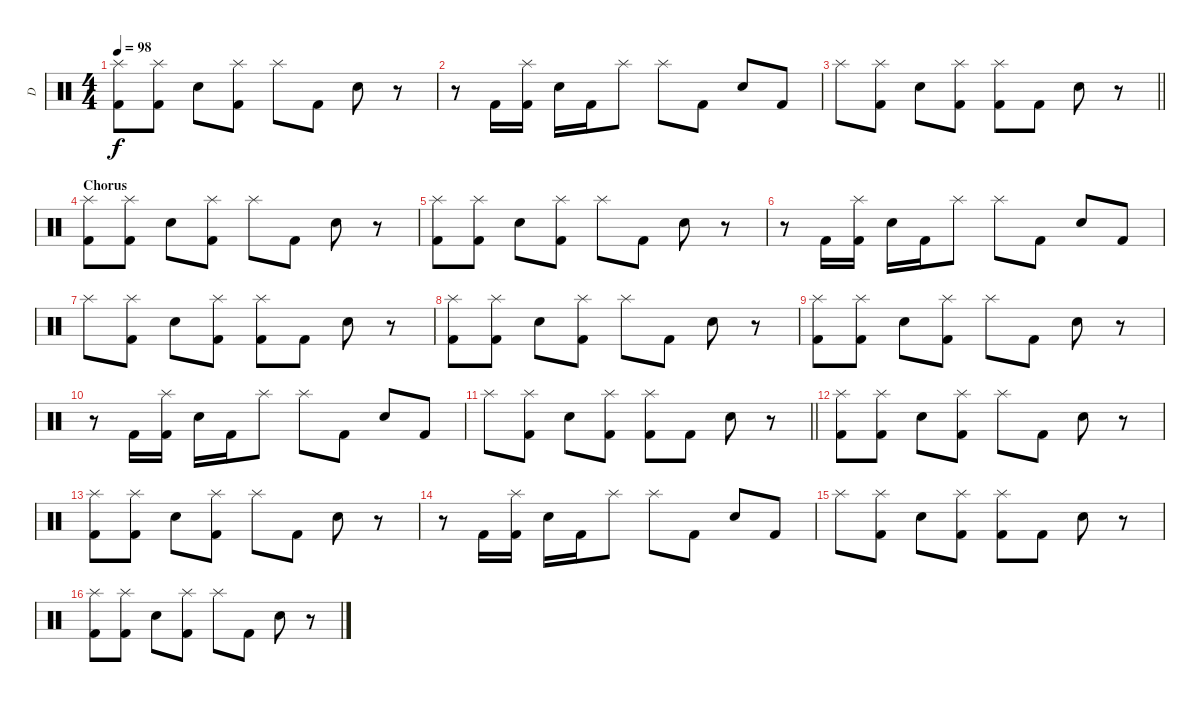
\track ("D" "D") {instrument percussion}
\staff {score}
\articulation defaults
\ts (4 4)
\tempo 98
\clef neutral
\ks c
("Kick (hit) 2" "Splash (hit)").8{dy f} ("Kick (hit) 2" "Splash (hit)").8 "Electric Snare (hit)".8 ("Kick (hit) 2" "Splash (hit)").8 "Splash (hit)".8 "Kick (hit) 2".8 "Electric Snare (hit)".8 r.8 |
r.8 "Kick (hit) 2".16 ("Kick (hit) 2" "Splash (hit)").16 "Electric Snare (hit)".16 "Kick (hit) 2".16 "Splash (hit)".8 "Splash (hit)".8 "Kick (hit) 2".8 "Electric Snare (hit)".8 "Kick (hit) 2".8 |
\barLineRight lightlight "Splash (hit)".8
("Kick (hit) 2" "Splash (hit)").8 "Electric Snare (hit)".8 ("Kick (hit) 2" "Splash (hit)").8 ("Kick (hit) 2" "Splash (hit)").8 "Kick (hit) 2".8 "Electric Snare (hit)".8 r.8 |
\section ("" "Chorus")
("Kick (hit) 2" "Splash (hit)").8 ("Kick (hit) 2" "Splash (hit)").8 "Electric Snare (hit)".8 ("Kick (hit) 2" "Splash (hit)").8 "Splash (hit)".8 "Kick (hit) 2".8 "Electric Snare (hit)".8 r.8 |
("Kick (hit) 2" "Splash (hit)").8 ("Kick (hit) 2" "Splash (hit)").8 "Electric Snare (hit)".8 ("Kick (hit) 2" "Splash (hit)").8 "Splash (hit)".8 "Kick (hit) 2".8 "Electric Snare (hit)".8 r.8 |
r.8 "Kick (hit) 2".16 ("Kick (hit) 2" "Splash (hit)").16 "Electric Snare (hit)".16 "Kick (hit) 2".16 "Splash (hit)".8 "Splash (hit)".8 "Kick (hit) 2".8 "Electric Snare (hit)".8 "Kick (hit) 2".8 |
"Splash (hit)".8 ("Kick (hit) 2" "Splash (hit)").8 "Electric Snare (hit)".8 ("Kick (hit) 2" "Splash (hit)").8 ("Kick (hit) 2" "Splash (hit)").8 "Kick (hit) 2".8 "Electric Snare (hit)".8 r.8 |
("Kick (hit) 2" "Splash (hit)").8 ("Kick (hit) 2" "Splash (hit)").8 "Electric Snare (hit)".8 ("Kick (hit) 2" "Splash (hit)").8 "Splash (hit)".8 "Kick (hit) 2".8 "Electric Snare (hit)".8 r.8 |
("Kick (hit) 2" "Splash (hit)").8 ("Kick (hit) 2" "Splash (hit)").8 "Electric Snare (hit)".8 ("Kick (hit) 2" "Splash (hit)").8 "Splash (hit)".8 "Kick (hit) 2".8 "Electric Snare (hit)".8 r.8 |
r.8 "Kick (hit) 2".16 ("Kick (hit) 2" "Splash (hit)").16 "Electric Snare (hit)".16 "Kick (hit) 2".16 "Splash (hit)".8 "Splash (hit)".8 "Kick (hit) 2".8 "Electric Snare (hit)".8 "Kick (hit) 2".8 |
\barLineRight lightlight "Splash (hit)".8
("Kick (hit) 2" "Splash (hit)").8 "Electric Snare (hit)".8 ("Kick (hit) 2" "Splash (hit)").8 ("Kick (hit) 2" "Splash (hit)").8 "Kick (hit) 2".8 "Electric Snare (hit)".8 r.8 |
("Kick (hit) 2" "Splash (hit)").8 ("Kick (hit) 2" "Splash (hit)").8 "Electric Snare (hit)".8 ("Kick (hit) 2" "Splash (hit)").8 "Splash (hit)".8 "Kick (hit) 2".8 "Electric Snare (hit)".8 r.8 |
("Kick (hit) 2" "Splash (hit)").8 ("Kick (hit) 2" "Splash (hit)").8 "Electric Snare (hit)".8 ("Kick (hit) 2" "Splash (hit)").8 "Splash (hit)".8 "Kick (hit) 2".8 "Electric Snare (hit)".8 r.8 |
r.8 "Kick (hit) 2".16 ("Kick (hit) 2" "Splash (hit)").16 "Electric Snare (hit)".16 "Kick (hit) 2".16 "Splash (hit)".8 "Splash (hit)".8 "Kick (hit) 2".8 "Electric Snare (hit)".8 "Kick (hit) 2".8 |
"Splash (hit)".8 ("Kick (hit) 2" "Splash (hit)").8 "Electric Snare (hit)".8 ("Kick (hit) 2" "Splash (hit)").8 ("Kick (hit) 2" "Splash (hit)").8 "Kick (hit) 2".8 "Electric Snare (hit)".8 r.8 |
("Kick (hit) 2" "Splash (hit)").8 ("Kick (hit) 2" "Splash (hit)").8 "Electric Snare (hit)".8 ("Kick (hit) 2" "Splash (hit)").8 "Splash (hit)".8 "Kick (hit) 2".8 "Electric Snare (hit)".8 r.8
